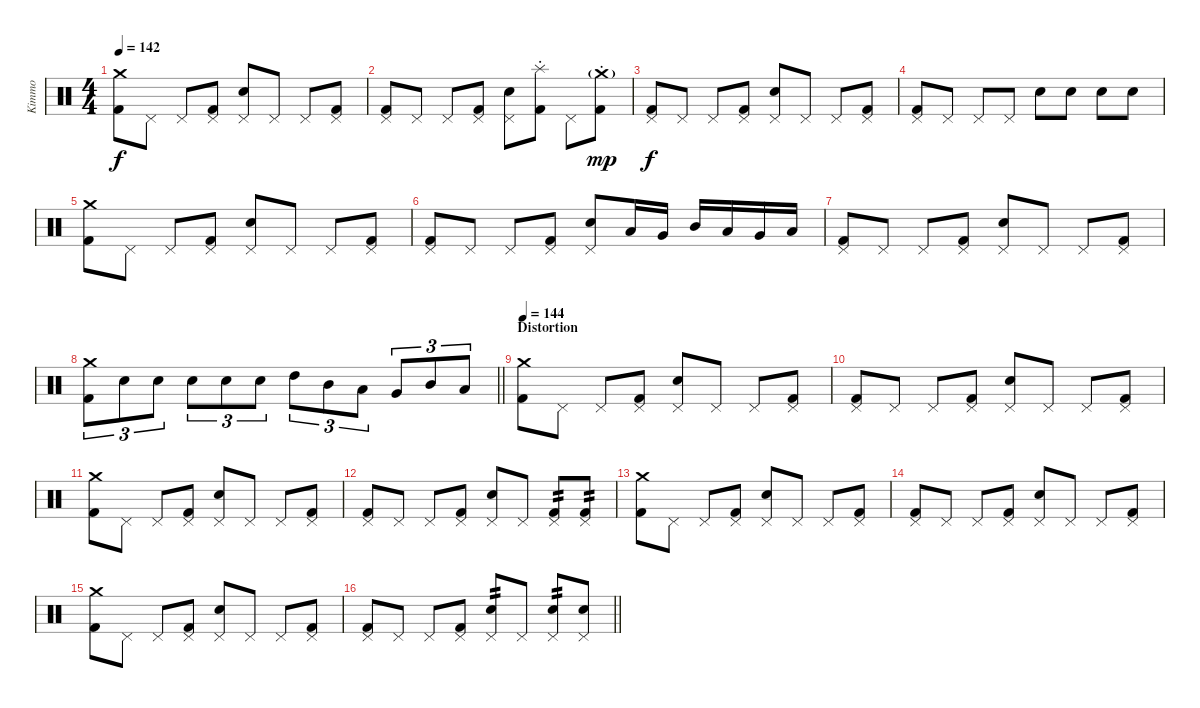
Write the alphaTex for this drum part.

\track ("Kimmo" "Kimmo") {instrument percussion}
\staff {score}
\articulation defaults
\ts (4 4)
\section ("" "")
\tempo 142
\clef neutral
\ks c
("Kick (hit) 2" "Crash medium (hit)").8{dy f} "Pedal Hi-Hat (hit)".8 "Pedal Hi-Hat (hit)".8 ("Kick (hit) 2" "Pedal Hi-Hat (hit)").8 ("Snare (hit) 2" "Pedal Hi-Hat (hit)").8 "Pedal Hi-Hat (hit)".8 "Pedal Hi-Hat (hit)".8 ("Kick (hit) 2" "Pedal Hi-Hat (hit)").8 |
("Kick (hit) 2" "Pedal Hi-Hat (hit)").8 "Pedal Hi-Hat (hit)".8 "Pedal Hi-Hat (hit)".8 ("Kick (hit) 2" "Pedal Hi-Hat (hit)").8 ("Snare (hit) 2" "Pedal Hi-Hat (hit)").8 ("Kick (hit) 2" "Splash (hit)"{st}).8 "Pedal Hi-Hat (hit)".8 ("Kick (hit) 2" "Crash medium (hit)"{g st}).8{dy mp} |
("Kick (hit) 2" "Pedal Hi-Hat (hit)").8{dy f} "Pedal Hi-Hat (hit)".8 "Pedal Hi-Hat (hit)".8 ("Kick (hit) 2" "Pedal Hi-Hat (hit)").8 ("Snare (hit) 2" "Pedal Hi-Hat (hit)").8 "Pedal Hi-Hat (hit)".8 "Pedal Hi-Hat (hit)".8 ("Kick (hit) 2" "Pedal Hi-Hat (hit)").8 |
("Kick (hit) 2" "Pedal Hi-Hat (hit)").8 "Pedal Hi-Hat (hit)".8 "Pedal Hi-Hat (hit)".8 "Pedal Hi-Hat (hit)".8 "Snare (hit) 2".8 "Snare (hit) 2".8 "Snare (hit) 2".8 "Snare (hit) 2".8 |
("Kick (hit) 2" "Crash medium (hit)").8 "Pedal Hi-Hat (hit)".8 "Pedal Hi-Hat (hit)".8 ("Kick (hit) 2" "Pedal Hi-Hat (hit)").8 ("Snare (hit) 2" "Pedal Hi-Hat (hit)").8 "Pedal Hi-Hat (hit)".8 "Pedal Hi-Hat (hit)".8 ("Kick (hit) 2" "Pedal Hi-Hat (hit)").8 |
("Kick (hit) 2" "Pedal Hi-Hat (hit)").8 "Pedal Hi-Hat (hit)".8 "Pedal Hi-Hat (hit)".8 ("Kick (hit) 2" "Pedal Hi-Hat (hit)").8 ("Snare (hit) 2" "Pedal Hi-Hat (hit)").8 "Low Tom (hit)".16 "Very Low Tom (hit)".16 "Mid Tom (hit)".16 "Low Tom (hit)".16 "Very Low Tom (hit)".16 "Low Floor Tom (hit)".16 |
("Kick (hit) 2" "Pedal Hi-Hat (hit)").8 "Pedal Hi-Hat (hit)".8 "Pedal Hi-Hat (hit)".8 ("Kick (hit) 2" "Pedal Hi-Hat (hit)").8 ("Snare (hit) 2" "Pedal Hi-Hat (hit)").8 "Pedal Hi-Hat (hit)".8 "Pedal Hi-Hat (hit)".8 ("Kick (hit) 2" "Pedal Hi-Hat (hit)").8 |
\barLineRight lightlight
("Kick (hit) 2" "Crash medium (hit)").8{tu (3 2)} "Snare (hit) 2".8{tu (3 2)} "Snare (hit) 2".8{tu (3 2)} "Snare (hit) 2".8{tu (3 2)} "Snare (hit) 2".8{tu (3 2)} "Snare (hit) 2".8{tu (3 2)} "High Tom (hit)".8{tu (3 2)} "Mid Tom (hit)".8{tu (3 2)} "Low Tom (hit)".8{tu (3 2)} "Very Low Tom (hit)".8{tu (3 2)} "Mid Tom (hit)".8{tu (3 2)} "Low Tom (hit)".8{tu (3 2)} |
\section ("" "Distortion")
\tempo 144
("Kick (hit) 2" "Crash medium (hit)").8 "Pedal Hi-Hat (hit)".8 "Pedal Hi-Hat (hit)".8 ("Kick (hit) 2" "Pedal Hi-Hat (hit)").8 ("Snare (hit) 2" "Pedal Hi-Hat (hit)").8 "Pedal Hi-Hat (hit)".8 "Pedal Hi-Hat (hit)".8 ("Kick (hit) 2" "Pedal Hi-Hat (hit)").8 |
("Kick (hit) 2" "Pedal Hi-Hat (hit)").8 "Pedal Hi-Hat (hit)".8 "Pedal Hi-Hat (hit)".8 ("Kick (hit) 2" "Pedal Hi-Hat (hit)").8 ("Snare (hit) 2" "Pedal Hi-Hat (hit)").8 "Pedal Hi-Hat (hit)".8 "Pedal Hi-Hat (hit)".8 ("Kick (hit) 2" "Pedal Hi-Hat (hit)").8 |
("Kick (hit) 2" "Crash medium (hit)").8 "Pedal Hi-Hat (hit)".8 "Pedal Hi-Hat (hit)".8 ("Kick (hit) 2" "Pedal Hi-Hat (hit)").8 ("Snare (hit) 2" "Pedal Hi-Hat (hit)").8 "Pedal Hi-Hat (hit)".8 "Pedal Hi-Hat (hit)".8 ("Kick (hit) 2" "Pedal Hi-Hat (hit)").8 |
("Kick (hit) 2" "Pedal Hi-Hat (hit)").8 "Pedal Hi-Hat (hit)".8 "Pedal Hi-Hat (hit)".8 ("Kick (hit) 2" "Pedal Hi-Hat (hit)").8 ("Snare (hit) 2" "Pedal Hi-Hat (hit)").8 "Pedal Hi-Hat (hit)".8 ("Kick (hit) 2" "Pedal Hi-Hat (hit)").8{tp 2} ("Kick (hit) 2" "Pedal Hi-Hat (hit)").8{tp 2} |
("Kick (hit) 2" "Crash medium (hit)").8 "Pedal Hi-Hat (hit)".8 "Pedal Hi-Hat (hit)".8 ("Kick (hit) 2" "Pedal Hi-Hat (hit)").8 ("Snare (hit) 2" "Pedal Hi-Hat (hit)").8 "Pedal Hi-Hat (hit)".8 "Pedal Hi-Hat (hit)".8 ("Kick (hit) 2" "Pedal Hi-Hat (hit)").8 |
("Kick (hit) 2" "Pedal Hi-Hat (hit)").8 "Pedal Hi-Hat (hit)".8 "Pedal Hi-Hat (hit)".8 ("Kick (hit) 2" "Pedal Hi-Hat (hit)").8 ("Snare (hit) 2" "Pedal Hi-Hat (hit)").8 "Pedal Hi-Hat (hit)".8 "Pedal Hi-Hat (hit)".8 ("Kick (hit) 2" "Pedal Hi-Hat (hit)").8 |
("Kick (hit) 2" "Crash medium (hit)").8 "Pedal Hi-Hat (hit)".8 "Pedal Hi-Hat (hit)".8 ("Kick (hit) 2" "Pedal Hi-Hat (hit)").8 ("Snare (hit) 2" "Pedal Hi-Hat (hit)").8 "Pedal Hi-Hat (hit)".8 "Pedal Hi-Hat (hit)".8 ("Kick (hit) 2" "Pedal Hi-Hat (hit)").8 |
\barLineRight lightlight
("Kick (hit) 2" "Pedal Hi-Hat (hit)").8 "Pedal Hi-Hat (hit)".8 "Pedal Hi-Hat (hit)".8 ("Kick (hit) 2" "Pedal Hi-Hat (hit)").8 ("Snare (hit) 2" "Pedal Hi-Hat (hit)").8{tp 2} "Pedal Hi-Hat (hit)".8 ("Snare (hit) 2" "Pedal Hi-Hat (hit)").8{tp 2} ("Snare (hit) 2" "Pedal Hi-Hat (hit)").8
